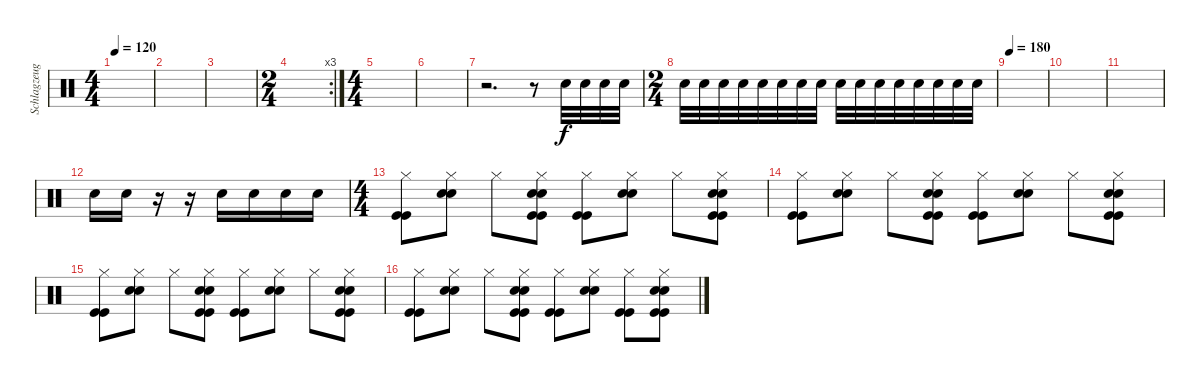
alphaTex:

\track ("Schlagzeug" "Schlagzeug") {instrument percussion}
\staff {score}
\articulation defaults
\ts (4 4)
\tempo 120
\clef neutral
\ks c
|
|
|
\rc 3
\ts (2 4)
|
\ts (4 4)
|
|
r.2{d} r.8 "Electric Snare (hit)".32 "Electric Snare (hit)".32 "Electric Snare (hit)".32 "Electric Snare (hit)".32 |
\ts (2 4)
"Electric Snare (hit)".32 "Electric Snare (hit)".32 "Electric Snare (hit)".32 "Electric Snare (hit)".32 "Electric Snare (hit)".32 "Electric Snare (hit)".32 "Electric Snare (hit)".32 "Electric Snare (hit)".32 "Electric Snare (hit)".32 "Electric Snare (hit)".32 "Electric Snare (hit)".32 "Electric Snare (hit)".32 "Electric Snare (hit)".32 "Electric Snare (hit)".32 "Electric Snare (hit)".32 "Electric Snare (hit)".32 |
\tempo 180
|
|
|
"Electric Snare (hit)".16 "Electric Snare (hit)".16 r.16 r.16 "Electric Snare (hit)".16 "Electric Snare (hit)".16 "Electric Snare (hit)".16 "Electric Snare (hit)".16 |
\ts (4 4)
("Hi-Hat (closed)" "Kick (hit)" "Kick (hit)").8 ("Hi-Hat (closed)" "Electric Snare (hit)" "Electric Snare (hit)").8 "Hi-Hat (closed)".8 ("Hi-Hat (closed)" "Electric Snare (hit)" "Electric Snare (hit)" "Kick (hit)" "Kick (hit)").8 ("Hi-Hat (closed)" "Kick (hit)" "Kick (hit)").8 ("Hi-Hat (closed)" "Electric Snare (hit)" "Electric Snare (hit)").8 "Hi-Hat (closed)".8 ("Hi-Hat (closed)" "Electric Snare (hit)" "Electric Snare (hit)" "Kick (hit)" "Kick (hit)").8 |
("Hi-Hat (closed)" "Kick (hit)" "Kick (hit)").8 ("Hi-Hat (closed)" "Electric Snare (hit)" "Electric Snare (hit)").8 "Hi-Hat (closed)".8 ("Hi-Hat (closed)" "Electric Snare (hit)" "Electric Snare (hit)" "Kick (hit)" "Kick (hit)").8 ("Hi-Hat (closed)" "Kick (hit)" "Kick (hit)").8 ("Hi-Hat (closed)" "Electric Snare (hit)" "Electric Snare (hit)").8 "Hi-Hat (closed)".8 ("Hi-Hat (closed)" "Electric Snare (hit)" "Electric Snare (hit)" "Kick (hit)" "Kick (hit)").8 |
("Hi-Hat (closed)" "Kick (hit)" "Kick (hit)").8 ("Hi-Hat (closed)" "Electric Snare (hit)" "Electric Snare (hit)").8 "Hi-Hat (closed)".8 ("Hi-Hat (closed)" "Electric Snare (hit)" "Electric Snare (hit)" "Kick (hit)" "Kick (hit)").8 ("Hi-Hat (closed)" "Kick (hit)" "Kick (hit)").8 ("Hi-Hat (closed)" "Electric Snare (hit)" "Electric Snare (hit)").8 "Hi-Hat (closed)".8 ("Hi-Hat (closed)" "Electric Snare (hit)" "Electric Snare (hit)" "Kick (hit)" "Kick (hit)").8 |
("Hi-Hat (closed)" "Kick (hit)" "Kick (hit)").8 ("Hi-Hat (closed)" "Electric Snare (hit)" "Electric Snare (hit)").8 "Hi-Hat (closed)".8 ("Hi-Hat (closed)" "Electric Snare (hit)" "Electric Snare (hit)" "Kick (hit)" "Kick (hit)").8 ("Hi-Hat (closed)" "Kick (hit)" "Kick (hit)").8 ("Hi-Hat (closed)" "Electric Snare (hit)" "Electric Snare (hit)").8 ("Hi-Hat (closed)" "Kick (hit)" "Kick (hit)").8 ("Hi-Hat (closed)" "Electric Snare (hit)" "Electric Snare (hit)" "Kick (hit)" "Kick (hit)").8
